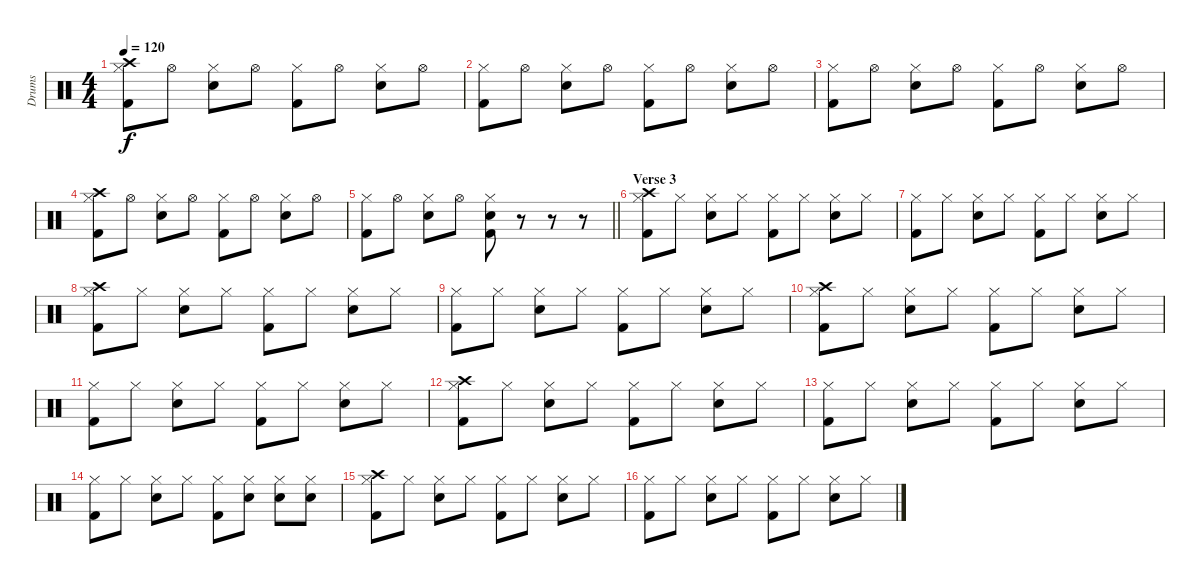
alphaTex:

\track ("Drums" "Drums") {instrument percussion}
\staff {score}
\articulation defaults
\ts (4 4)
\tempo 120
\clef neutral
\ks c
("Crash high (hit)" "Hi-Hat (closed)" "Kick (hit) 2").8{dy f} "Hi-Hat (open)".8 ("Hi-Hat (closed)" "Snare (hit) 2").8 "Hi-Hat (open)".8 ("Hi-Hat (closed)" "Kick (hit) 2").8 "Hi-Hat (open)".8 ("Hi-Hat (closed)" "Snare (hit) 2").8 "Hi-Hat (open)".8 |
("Hi-Hat (closed)" "Kick (hit) 2").8 "Hi-Hat (open)".8 ("Hi-Hat (closed)" "Snare (hit) 2").8 "Hi-Hat (open)".8 ("Hi-Hat (closed)" "Kick (hit) 2").8 "Hi-Hat (open)".8 ("Hi-Hat (closed)" "Snare (hit) 2").8 "Hi-Hat (open)".8 |
("Hi-Hat (closed)" "Kick (hit) 2").8 "Hi-Hat (open)".8 ("Hi-Hat (closed)" "Snare (hit) 2").8 "Hi-Hat (open)".8 ("Hi-Hat (closed)" "Kick (hit) 2").8 "Hi-Hat (open)".8 ("Hi-Hat (closed)" "Snare (hit) 2").8 "Hi-Hat (open)".8 |
("Crash high (hit)" "Hi-Hat (closed)" "Kick (hit) 2").8 "Hi-Hat (open)".8 ("Hi-Hat (closed)" "Snare (hit) 2").8 "Hi-Hat (open)".8 ("Hi-Hat (closed)" "Kick (hit) 2").8 "Hi-Hat (open)".8 ("Hi-Hat (closed)" "Snare (hit) 2").8 "Hi-Hat (open)".8 |
\barLineRight lightlight
("Hi-Hat (closed)" "Kick (hit) 2").8 "Hi-Hat (open)".8 ("Hi-Hat (closed)" "Snare (hit) 2").8 "Hi-Hat (open)".8 ("Hi-Hat (closed)" "Snare (hit) 2" "Kick (hit) 2").8 r.8 r.8 r.8 |
\section ("" "Verse 3")
("Crash high (hit)" "Hi-Hat (closed)" "Kick (hit) 2").8 "Hi-Hat (closed)".8 ("Hi-Hat (closed)" "Snare (hit) 2").8 "Hi-Hat (closed)".8 ("Hi-Hat (closed)" "Kick (hit) 2").8 "Hi-Hat (closed)".8 ("Hi-Hat (closed)" "Snare (hit) 2").8 "Hi-Hat (closed)".8 |
("Hi-Hat (closed)" "Kick (hit) 2").8 "Hi-Hat (closed)".8 ("Hi-Hat (closed)" "Snare (hit) 2").8 "Hi-Hat (closed)".8 ("Hi-Hat (closed)" "Kick (hit) 2").8 "Hi-Hat (closed)".8 ("Hi-Hat (closed)" "Snare (hit) 2").8 "Hi-Hat (closed)".8 |
("Crash high (hit)" "Hi-Hat (closed)" "Kick (hit) 2").8 "Hi-Hat (closed)".8 ("Hi-Hat (closed)" "Snare (hit) 2").8 "Hi-Hat (closed)".8 ("Hi-Hat (closed)" "Kick (hit) 2").8 "Hi-Hat (closed)".8 ("Hi-Hat (closed)" "Snare (hit) 2").8 "Hi-Hat (closed)".8 |
("Hi-Hat (closed)" "Kick (hit) 2").8 "Hi-Hat (closed)".8 ("Hi-Hat (closed)" "Snare (hit) 2").8 "Hi-Hat (closed)".8 ("Hi-Hat (closed)" "Kick (hit) 2").8 "Hi-Hat (closed)".8 ("Hi-Hat (closed)" "Snare (hit) 2").8 "Hi-Hat (closed)".8 |
("Crash high (hit)" "Hi-Hat (closed)" "Kick (hit) 2").8 "Hi-Hat (closed)".8 ("Hi-Hat (closed)" "Snare (hit) 2").8 "Hi-Hat (closed)".8 ("Hi-Hat (closed)" "Kick (hit) 2").8 "Hi-Hat (closed)".8 ("Hi-Hat (closed)" "Snare (hit) 2").8 "Hi-Hat (closed)".8 |
("Hi-Hat (closed)" "Kick (hit) 2").8 "Hi-Hat (closed)".8 ("Hi-Hat (closed)" "Snare (hit) 2").8 "Hi-Hat (closed)".8 ("Hi-Hat (closed)" "Kick (hit) 2").8 "Hi-Hat (closed)".8 ("Hi-Hat (closed)" "Snare (hit) 2").8 "Hi-Hat (closed)".8 |
("Crash high (hit)" "Hi-Hat (closed)" "Kick (hit) 2").8 "Hi-Hat (closed)".8 ("Hi-Hat (closed)" "Snare (hit) 2").8 "Hi-Hat (closed)".8 ("Hi-Hat (closed)" "Kick (hit) 2").8 "Hi-Hat (closed)".8 ("Hi-Hat (closed)" "Snare (hit) 2").8 "Hi-Hat (closed)".8 |
("Hi-Hat (closed)" "Kick (hit) 2").8 "Hi-Hat (closed)".8 ("Hi-Hat (closed)" "Snare (hit) 2").8 "Hi-Hat (closed)".8 ("Hi-Hat (closed)" "Kick (hit) 2").8 "Hi-Hat (closed)".8 ("Hi-Hat (closed)" "Snare (hit) 2").8 "Hi-Hat (closed)".8 |
("Hi-Hat (closed)" "Kick (hit) 2").8 "Hi-Hat (closed)".8 ("Hi-Hat (closed)" "Snare (hit) 2").8 "Hi-Hat (closed)".8 ("Hi-Hat (closed)" "Kick (hit) 2").8 ("Hi-Hat (closed)" "Snare (hit) 2").8 ("Hi-Hat (closed)" "Snare (hit) 2").8 ("Hi-Hat (closed)" "Snare (hit) 2").8 |
("Crash high (hit)" "Hi-Hat (closed)" "Kick (hit) 2").8 "Hi-Hat (closed)".8 ("Hi-Hat (closed)" "Snare (hit) 2").8 "Hi-Hat (closed)".8 ("Hi-Hat (closed)" "Kick (hit) 2").8 "Hi-Hat (closed)".8 ("Hi-Hat (closed)" "Snare (hit) 2").8 "Hi-Hat (closed)".8 |
("Hi-Hat (closed)" "Kick (hit) 2").8 "Hi-Hat (closed)".8 ("Hi-Hat (closed)" "Snare (hit) 2").8 "Hi-Hat (closed)".8 ("Hi-Hat (closed)" "Kick (hit) 2").8 "Hi-Hat (closed)".8 ("Hi-Hat (closed)" "Snare (hit) 2").8 "Hi-Hat (closed)".8
